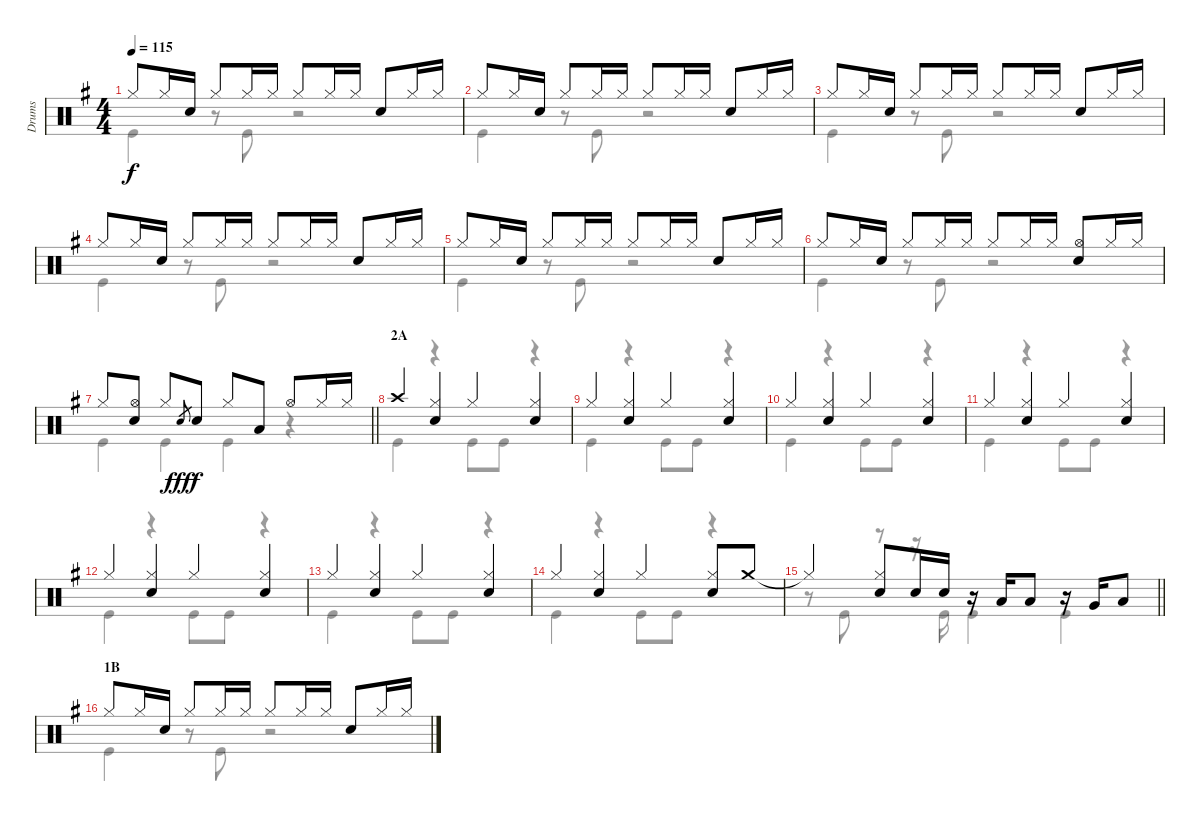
\track ("Drums" "Drums") {instrument percussion}
\staff {score}
\articulation defaults
\voice
\ts (4 4)
\tempo 115
\clef neutral
\ks g "Hi-Hat (closed)".8{dy f} "Hi-Hat (closed)".16 "Snare (hit) 2".16 "Hi-Hat (closed)".8 "Hi-Hat (closed)".16 "Hi-Hat (closed)".16 "Hi-Hat (closed)".8 "Hi-Hat (closed)".16 "Hi-Hat (closed)".16 "Snare (hit) 2".8 "Hi-Hat (closed)".16 "Hi-Hat (closed)".16
|
"Hi-Hat (closed)".8 "Hi-Hat (closed)".16 "Snare (hit) 2".16 "Hi-Hat (closed)".8 "Hi-Hat (closed)".16 "Hi-Hat (closed)".16 "Hi-Hat (closed)".8 "Hi-Hat (closed)".16 "Hi-Hat (closed)".16 "Snare (hit) 2".8 "Hi-Hat (closed)".16 "Hi-Hat (closed)".16 |
"Hi-Hat (closed)".8 "Hi-Hat (closed)".16 "Snare (hit) 2".16 "Hi-Hat (closed)".8 "Hi-Hat (closed)".16 "Hi-Hat (closed)".16 "Hi-Hat (closed)".8 "Hi-Hat (closed)".16 "Hi-Hat (closed)".16 "Snare (hit) 2".8 "Hi-Hat (closed)".16 "Hi-Hat (closed)".16 |
"Hi-Hat (closed)".8 "Hi-Hat (closed)".16 "Snare (hit) 2".16 "Hi-Hat (closed)".8 "Hi-Hat (closed)".16 "Hi-Hat (closed)".16 "Hi-Hat (closed)".8 "Hi-Hat (closed)".16 "Hi-Hat (closed)".16 "Snare (hit) 2".8 "Hi-Hat (closed)".16 "Hi-Hat (closed)".16 |
"Hi-Hat (closed)".8 "Hi-Hat (closed)".16 "Snare (hit) 2".16 "Hi-Hat (closed)".8 "Hi-Hat (closed)".16 "Hi-Hat (closed)".16 "Hi-Hat (closed)".8 "Hi-Hat (closed)".16 "Hi-Hat (closed)".16 "Snare (hit) 2".8 "Hi-Hat (closed)".16 "Hi-Hat (closed)".16 |
"Hi-Hat (closed)".8 "Hi-Hat (closed)".16 "Snare (hit) 2".16 "Hi-Hat (closed)".8 "Hi-Hat (closed)".16 "Hi-Hat (closed)".16 "Hi-Hat (closed)".8 "Hi-Hat (closed)".16 "Hi-Hat (closed)".16 ("Hi-Hat (open)" "Snare (hit) 2").8 "Hi-Hat (closed)".16 "Hi-Hat (closed)".16 |
\barLineRight lightlight "Hi-Hat (closed)".8
("Hi-Hat (open)" "Snare (hit) 2").8 "Hi-Hat (closed)".8 "Snare (hit) 2".8{gr dy fff} "Snare (hit) 2".8{dy f} "Hi-Hat (closed)".8 "Low Tom (hit)".8 "Hi-Hat (open)".8 "Hi-Hat (closed)".16 "Hi-Hat (closed)".16 |
\section ("" "2A")
"Crash high (hit)".4 ("Hi-Hat (closed)" "Snare (hit) 2").4 "Hi-Hat (closed)".4 ("Hi-Hat (closed)" "Snare (hit) 2").4 |
"Hi-Hat (closed)".4 ("Hi-Hat (closed)" "Snare (hit) 2").4 "Hi-Hat (closed)".4 ("Hi-Hat (closed)" "Snare (hit) 2").4 |
"Hi-Hat (closed)".4 ("Hi-Hat (closed)" "Snare (hit) 2").4 "Hi-Hat (closed)".4 ("Hi-Hat (closed)" "Snare (hit) 2").4 |
"Hi-Hat (closed)".4 ("Hi-Hat (closed)" "Snare (hit) 2").4 "Hi-Hat (closed)".4 ("Hi-Hat (closed)" "Snare (hit) 2").4 |
"Hi-Hat (closed)".4 ("Hi-Hat (closed)" "Snare (hit) 2").4 "Hi-Hat (closed)".4 ("Hi-Hat (closed)" "Snare (hit) 2").4 |
"Hi-Hat (closed)".4 ("Hi-Hat (closed)" "Snare (hit) 2").4 "Hi-Hat (closed)".4 ("Hi-Hat (closed)" "Snare (hit) 2").4 |
"Hi-Hat (closed)".4 ("Hi-Hat (closed)" "Snare (hit) 2").4 "Hi-Hat (closed)".4 ("Hi-Hat (closed)" "Snare (hit) 2").8 "Crash medium (hit)".8 |
\barLineRight lightlight "Hi-Hat (closed)"{t}.4
("Hi-Hat (closed)" "Snare (hit) 2").8 "Snare (hit) 2".16 "Snare (hit) 2".16 r.16 "Low Tom (hit)".16 "Low Tom (hit)".8 r.16 "Very Low Tom (hit)".16 "Low Floor Tom (hit)".8 |
\section ("" "1B")
"Hi-Hat (closed)".8 "Hi-Hat (closed)".16 "Snare (hit) 2".16 "Hi-Hat (closed)".8 "Hi-Hat (closed)".16 "Hi-Hat (closed)".16 "Hi-Hat (closed)".8 "Hi-Hat (closed)".16 "Hi-Hat (closed)".16 "Snare (hit) 2".8 "Hi-Hat (closed)".16 "Hi-Hat (closed)".16
\voice
\clef neutral
\ottava regular
\simile none
\ks g "Kick (hit)".4{dy f}
r.8 "Kick (hit)".8 r.2 |
"Kick (hit)".4 r.8 "Kick (hit)".8 r.2 |
"Kick (hit)".4 r.8 "Kick (hit)".8 r.2 |
"Kick (hit)".4 r.8 "Kick (hit)".8 r.2 |
"Kick (hit)".4 r.8 "Kick (hit)".8 r.2 |
"Kick (hit)".4 r.8 "Kick (hit)".8 r.2 |
\barLineRight lightlight "Kick (hit)".4 "Kick (hit)".4 "Kick (hit)".4
r.4 |
"Kick (hit)".4 r.4 "Kick (hit)".8 "Kick (hit)".8 r.4 |
"Kick (hit)".4 r.4 "Kick (hit)".8 "Kick (hit)".8 r.4 |
"Kick (hit)".4 r.4 "Kick (hit)".8 "Kick (hit)".8 r.4 |
"Kick (hit)".4 r.4 "Kick (hit)".8 "Kick (hit)".8 r.4 |
"Kick (hit)".4 r.4 "Kick (hit)".8 "Kick (hit)".8 r.4 |
"Kick (hit)".4 r.4 "Kick (hit)".8 "Kick (hit)".8 r.4 |
"Kick (hit)".4 r.4 "Kick (hit)".8 "Kick (hit)".8 r.4 |
\barLineRight lightlight
r.8 "Kick (hit)".8 r.8 r.16 "Kick (hit)".16 "Kick (hit)".4 "Kick (hit)".4 |
"Kick (hit)".4 r.8 "Kick (hit)".8 r.2
